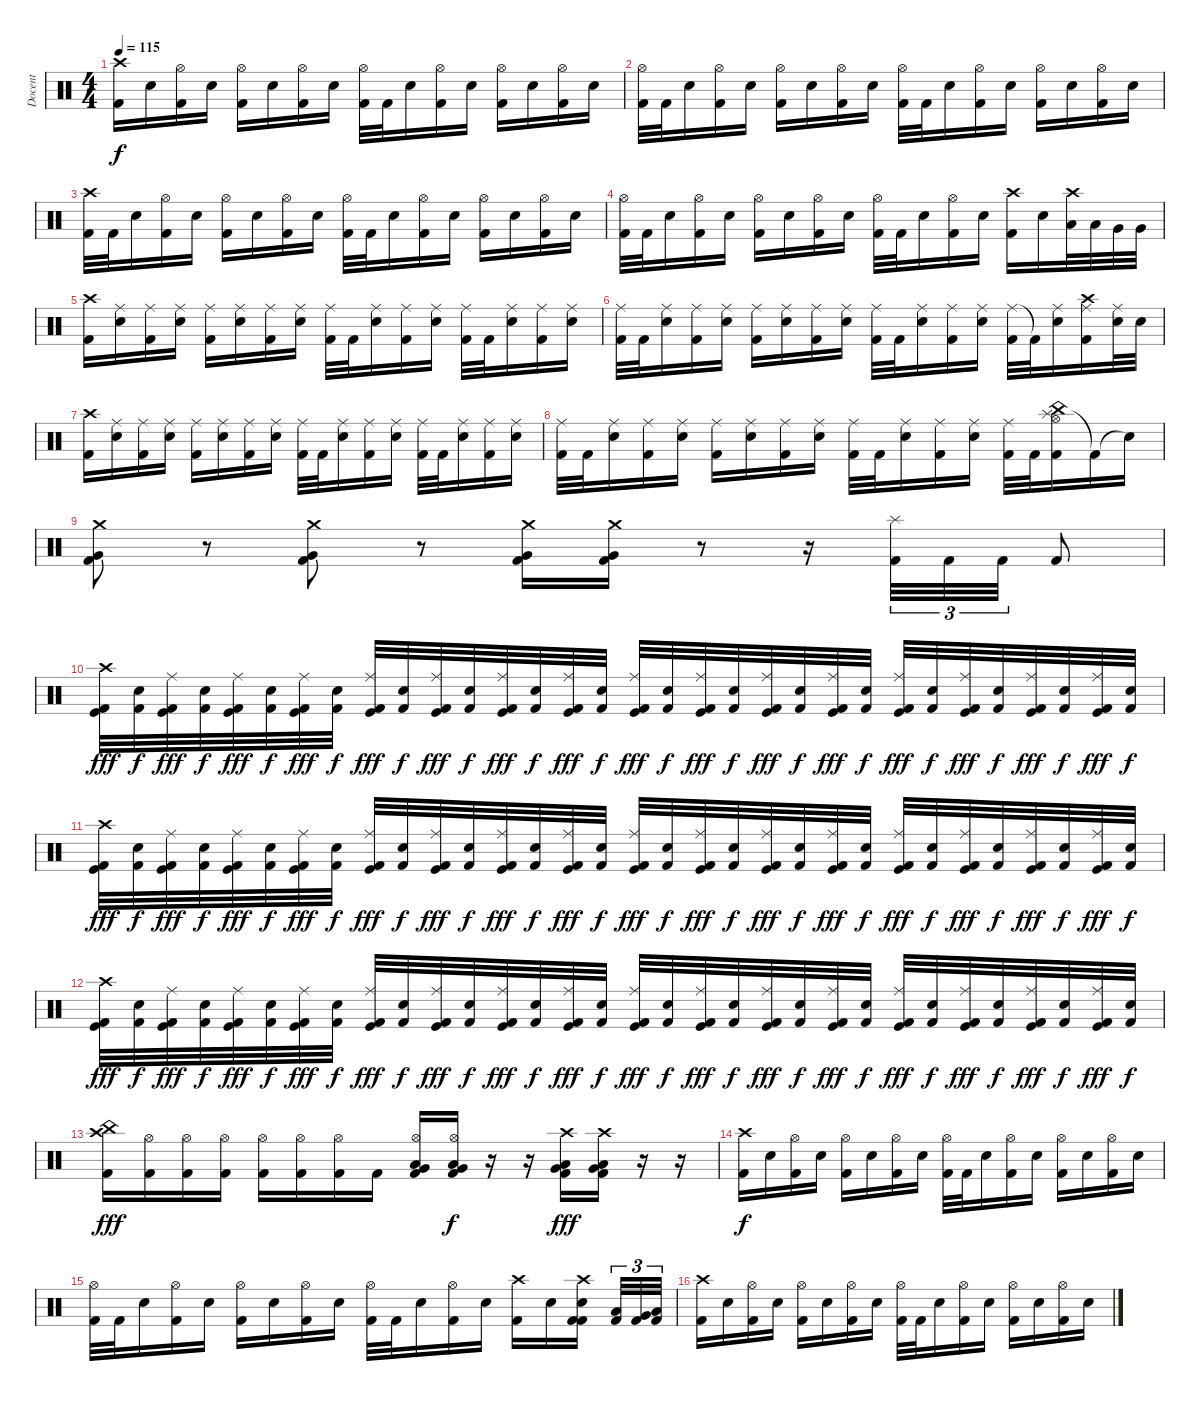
\track ("Docent" "Docent") {instrument percussion}
\staff {score}
\articulation defaults
\ts (4 4)
\tempo 115
\clef neutral
\ks c
("Crash high (hit)" "Kick (hit) 2").16{dy f} "Electric Snare (hit)".16 ("Hi-Hat (open)" "Kick (hit) 2").16 "Electric Snare (hit)".16 ("Hi-Hat (open)" "Kick (hit) 2").16 "Electric Snare (hit)".16 ("Hi-Hat (open)" "Kick (hit) 2").16 "Electric Snare (hit)".16 ("Hi-Hat (open)" "Kick (hit) 2").32 "Kick (hit) 2".32 "Electric Snare (hit)".16 ("Hi-Hat (open)" "Kick (hit) 2").16 "Electric Snare (hit)".16 ("Hi-Hat (open)" "Kick (hit) 2").16 "Electric Snare (hit)".16 ("Hi-Hat (open)" "Kick (hit) 2").16 "Electric Snare (hit)".16 |
("Hi-Hat (open)" "Kick (hit) 2").32 "Kick (hit) 2".32 "Electric Snare (hit)".16 ("Hi-Hat (open)" "Kick (hit) 2").16 "Electric Snare (hit)".16 ("Hi-Hat (open)" "Kick (hit) 2").16 "Electric Snare (hit)".16 ("Hi-Hat (open)" "Kick (hit) 2").16 "Electric Snare (hit)".16 ("Hi-Hat (open)" "Kick (hit) 2").32 "Kick (hit) 2".32 "Electric Snare (hit)".16 ("Hi-Hat (open)" "Kick (hit) 2").16 "Electric Snare (hit)".16 ("Hi-Hat (open)" "Kick (hit) 2").16 "Electric Snare (hit)".16 ("Hi-Hat (open)" "Kick (hit) 2").16 "Electric Snare (hit)".16 |
("Crash high (hit)" "Kick (hit) 2").32 "Kick (hit) 2".32 "Electric Snare (hit)".16 ("Hi-Hat (open)" "Kick (hit) 2").16 "Electric Snare (hit)".16 ("Hi-Hat (open)" "Kick (hit) 2").16 "Electric Snare (hit)".16 ("Hi-Hat (open)" "Kick (hit) 2").16 "Electric Snare (hit)".16 ("Hi-Hat (open)" "Kick (hit) 2").32 "Kick (hit) 2".32 "Electric Snare (hit)".16 ("Hi-Hat (open)" "Kick (hit) 2").16 "Electric Snare (hit)".16 ("Hi-Hat (open)" "Kick (hit) 2").16 "Electric Snare (hit)".16 ("Hi-Hat (open)" "Kick (hit) 2").16 "Electric Snare (hit)".16 |
("Hi-Hat (open)" "Kick (hit) 2").32 "Kick (hit) 2".32 "Electric Snare (hit)".16 ("Hi-Hat (open)" "Kick (hit) 2").16 "Electric Snare (hit)".16 ("Hi-Hat (open)" "Kick (hit) 2").16 "Electric Snare (hit)".16 ("Hi-Hat (open)" "Kick (hit) 2").16 "Electric Snare (hit)".16 ("Hi-Hat (open)" "Kick (hit) 2").32 "Kick (hit) 2".32 "Electric Snare (hit)".16 ("Hi-Hat (open)" "Kick (hit) 2").16 "Electric Snare (hit)".16 ("Crash high (hit)" "Kick (hit) 2").16 "Electric Snare (hit)".16 ("Crash high (hit)" "Low Tom (hit)").32 "Low Tom (hit)".32 "Very Low Tom (hit)".32 "Very Low Tom (hit)".32 |
("Crash high (hit)" "Kick (hit) 2").16 ("Ride (middle)" "Electric Snare (hit)").16 ("Ride (middle)" "Kick (hit) 2").16 ("Ride (middle)" "Electric Snare (hit)").16 ("Ride (middle)" "Kick (hit) 2").16 ("Ride (middle)" "Electric Snare (hit)").16 ("Ride (middle)" "Kick (hit) 2").16 ("Ride (middle)" "Electric Snare (hit)").16 ("Ride (middle)" "Kick (hit) 2").32 "Kick (hit) 2".32 ("Ride (middle)" "Electric Snare (hit)").16 ("Ride (middle)" "Kick (hit) 2").16 ("Ride (middle)" "Electric Snare (hit)").16 ("Ride (middle)" "Kick (hit) 2").32 "Kick (hit) 2".32 ("Ride (middle)" "Electric Snare (hit)").16 ("Ride (middle)" "Kick (hit) 2").16 ("Ride (middle)" "Electric Snare (hit)").16 |
("Ride (middle)" "Kick (hit) 2").32 "Kick (hit) 2".32 ("Ride (middle)" "Electric Snare (hit)").16 ("Ride (middle)" "Kick (hit) 2").16 ("Ride (middle)" "Electric Snare (hit)").16 ("Ride (middle)" "Kick (hit) 2").16 ("Ride (middle)" "Electric Snare (hit)").16 ("Ride (middle)" "Kick (hit) 2").16 ("Ride (middle)" "Electric Snare (hit)").16 ("Ride (middle)" "Kick (hit) 2").32 "Kick (hit) 2".32 ("Ride (middle)" "Electric Snare (hit)").16 ("Ride (middle)" "Kick (hit) 2").16 ("Ride (middle)" "Electric Snare (hit)").16 ("Ride (middle)" "Kick (hit) 2").32 "Kick (hit) 2"{t}.32 ("Ride (middle)" "Electric Snare (hit)").16 ("Ride (middle)" "Crash high (hit)" "Kick (hit) 2").16 ("Ride (middle)" "Electric Snare (hit)").32 "Electric Snare (hit)".32 |
("Crash high (hit)" "Kick (hit) 2").16 ("Ride (middle)" "Electric Snare (hit)").16 ("Ride (middle)" "Kick (hit) 2").16 ("Ride (middle)" "Electric Snare (hit)").16 ("Ride (middle)" "Kick (hit) 2").16 ("Ride (middle)" "Electric Snare (hit)").16 ("Ride (middle)" "Kick (hit) 2").16 ("Ride (middle)" "Electric Snare (hit)").16 ("Ride (middle)" "Kick (hit) 2").32 "Kick (hit) 2".32 ("Ride (middle)" "Electric Snare (hit)").16 ("Ride (middle)" "Kick (hit) 2").16 ("Ride (middle)" "Electric Snare (hit)").16 ("Ride (middle)" "Kick (hit) 2").32 "Kick (hit) 2".32 ("Ride (middle)" "Electric Snare (hit)").16 ("Ride (middle)" "Kick (hit) 2").16 ("Ride (middle)" "Electric Snare (hit)").16 |
("Ride (middle)" "Kick (hit) 2").32 "Kick (hit) 2".32 ("Ride (middle)" "Electric Snare (hit)").16 ("Ride (middle)" "Kick (hit) 2").16 ("Ride (middle)" "Electric Snare (hit)").16 ("Ride (middle)" "Kick (hit) 2").16 ("Ride (middle)" "Electric Snare (hit)").16 ("Ride (middle)" "Kick (hit) 2").16 ("Ride (middle)" "Electric Snare (hit)").16 ("Ride (middle)" "Kick (hit) 2").32 "Kick (hit) 2".32 ("Ride (middle)" "Electric Snare (hit)").16 ("Ride (middle)" "Kick (hit) 2").16 ("Ride (middle)" "Electric Snare (hit)").16 ("Ride (middle)" "Kick (hit) 2").32 "Kick (hit) 2".32 ("Splash (hit)" "Hi-Hat (open)" "China (hit)" "Kick (hit) 2").16 "Kick (hit) 2"{t}.16 "Snare (hit)"{t}.16 |
("Crash medium (hit)" "Very Low Tom (hit)" "Kick (hit) 2").8 r.8 ("Crash medium (hit)" "Very Low Tom (hit)" "Kick (hit) 2").8 r.8 ("Crash medium (hit)" "Kick (hit) 2" "Very Low Tom (hit)").16 ("Crash medium (hit)" "Kick (hit) 2" "Very Low Tom (hit)").16 r.8 r.16 ("Splash (hit)" "Kick (hit) 2").32{tu (3 2)} "Kick (hit) 2".32{tu (3 2)} "Kick (hit) 2".32{tu (3 2)} "Kick (hit) 2".8 |
("Crash high (hit)" "Kick (hit)" "Kick (hit) 2").32{dy fff} ("Electric Snare (hit)" "Kick (hit) 2").32{dy f} ("Ride (middle)" "Kick (hit)" "Kick (hit) 2").32{dy fff} ("Electric Snare (hit)" "Kick (hit) 2").32{dy f} ("Ride (middle)" "Kick (hit)" "Kick (hit) 2").32{dy fff} ("Electric Snare (hit)" "Kick (hit) 2").32{dy f} ("Ride (middle)" "Kick (hit)" "Kick (hit) 2").32{dy fff} ("Electric Snare (hit)" "Kick (hit) 2").32{dy f} ("Ride (middle)" "Kick (hit)" "Kick (hit) 2").32{dy fff} ("Electric Snare (hit)" "Kick (hit) 2").32{dy f} ("Ride (middle)" "Kick (hit)" "Kick (hit) 2").32{dy fff} ("Electric Snare (hit)" "Kick (hit) 2").32{dy f} ("Ride (middle)" "Kick (hit)" "Kick (hit) 2").32{dy fff} ("Electric Snare (hit)" "Kick (hit) 2").32{dy f} ("Ride (middle)" "Kick (hit)" "Kick (hit) 2").32{dy fff} ("Electric Snare (hit)" "Kick (hit) 2").32{dy f} ("Ride (middle)" "Kick (hit)" "Kick (hit) 2").32{dy fff} ("Electric Snare (hit)" "Kick (hit) 2").32{dy f} ("Ride (middle)" "Kick (hit)" "Kick (hit) 2").32{dy fff} ("Electric Snare (hit)" "Kick (hit) 2").32{dy f} ("Ride (middle)" "Kick (hit)" "Kick (hit) 2").32{dy fff} ("Electric Snare (hit)" "Kick (hit) 2").32{dy f} ("Ride (middle)" "Kick (hit)" "Kick (hit) 2").32{dy fff} ("Electric Snare (hit)" "Kick (hit) 2").32{dy f} ("Ride (middle)" "Kick (hit)" "Kick (hit) 2").32{dy fff} ("Electric Snare (hit)" "Kick (hit) 2").32{dy f} ("Ride (middle)" "Kick (hit)" "Kick (hit) 2").32{dy fff} ("Electric Snare (hit)" "Kick (hit) 2").32{dy f} ("Ride (middle)" "Kick (hit)" "Kick (hit) 2").32{dy fff} ("Electric Snare (hit)" "Kick (hit) 2").32{dy f} ("Ride (middle)" "Kick (hit)" "Kick (hit) 2").32{dy fff} ("Electric Snare (hit)" "Kick (hit) 2").32{dy f} |
("Crash high (hit)" "Kick (hit)" "Kick (hit) 2").32{dy fff} ("Electric Snare (hit)" "Kick (hit) 2").32{dy f} ("Ride (middle)" "Kick (hit)" "Kick (hit) 2").32{dy fff} ("Electric Snare (hit)" "Kick (hit) 2").32{dy f} ("Ride (middle)" "Kick (hit)" "Kick (hit) 2").32{dy fff} ("Electric Snare (hit)" "Kick (hit) 2").32{dy f} ("Ride (middle)" "Kick (hit)" "Kick (hit) 2").32{dy fff} ("Electric Snare (hit)" "Kick (hit) 2").32{dy f} ("Ride (middle)" "Kick (hit)" "Kick (hit) 2").32{dy fff} ("Electric Snare (hit)" "Kick (hit) 2").32{dy f} ("Ride (middle)" "Kick (hit)" "Kick (hit) 2").32{dy fff} ("Electric Snare (hit)" "Kick (hit) 2").32{dy f} ("Ride (middle)" "Kick (hit)" "Kick (hit) 2").32{dy fff} ("Electric Snare (hit)" "Kick (hit) 2").32{dy f} ("Ride (middle)" "Kick (hit)" "Kick (hit) 2").32{dy fff} ("Electric Snare (hit)" "Kick (hit) 2").32{dy f} ("Ride (middle)" "Kick (hit)" "Kick (hit) 2").32{dy fff} ("Electric Snare (hit)" "Kick (hit) 2").32{dy f} ("Ride (middle)" "Kick (hit)" "Kick (hit) 2").32{dy fff} ("Electric Snare (hit)" "Kick (hit) 2").32{dy f} ("Ride (middle)" "Kick (hit)" "Kick (hit) 2").32{dy fff} ("Electric Snare (hit)" "Kick (hit) 2").32{dy f} ("Ride (middle)" "Kick (hit)" "Kick (hit) 2").32{dy fff} ("Electric Snare (hit)" "Kick (hit) 2").32{dy f} ("Ride (middle)" "Kick (hit)" "Kick (hit) 2").32{dy fff} ("Electric Snare (hit)" "Kick (hit) 2").32{dy f} ("Ride (middle)" "Kick (hit)" "Kick (hit) 2").32{dy fff} ("Electric Snare (hit)" "Kick (hit) 2").32{dy f} ("Ride (middle)" "Kick (hit)" "Kick (hit) 2").32{dy fff} ("Electric Snare (hit)" "Kick (hit) 2").32{dy f} ("Ride (middle)" "Kick (hit)" "Kick (hit) 2").32{dy fff} ("Electric Snare (hit)" "Kick (hit) 2").32{dy f} |
("Crash high (hit)" "Kick (hit)" "Kick (hit) 2").32{dy fff} ("Electric Snare (hit)" "Kick (hit) 2").32{dy f} ("Ride (middle)" "Kick (hit)" "Kick (hit) 2").32{dy fff} ("Electric Snare (hit)" "Kick (hit) 2").32{dy f} ("Ride (middle)" "Kick (hit)" "Kick (hit) 2").32{dy fff} ("Electric Snare (hit)" "Kick (hit) 2").32{dy f} ("Ride (middle)" "Kick (hit)" "Kick (hit) 2").32{dy fff} ("Electric Snare (hit)" "Kick (hit) 2").32{dy f} ("Ride (middle)" "Kick (hit)" "Kick (hit) 2").32{dy fff} ("Electric Snare (hit)" "Kick (hit) 2").32{dy f} ("Ride (middle)" "Kick (hit)" "Kick (hit) 2").32{dy fff} ("Electric Snare (hit)" "Kick (hit) 2").32{dy f} ("Ride (middle)" "Kick (hit)" "Kick (hit) 2").32{dy fff} ("Electric Snare (hit)" "Kick (hit) 2").32{dy f} ("Ride (middle)" "Kick (hit)" "Kick (hit) 2").32{dy fff} ("Electric Snare (hit)" "Kick (hit) 2").32{dy f} ("Ride (middle)" "Kick (hit)" "Kick (hit) 2").32{dy fff} ("Electric Snare (hit)" "Kick (hit) 2").32{dy f} ("Ride (middle)" "Kick (hit)" "Kick (hit) 2").32{dy fff} ("Electric Snare (hit)" "Kick (hit) 2").32{dy f} ("Ride (middle)" "Kick (hit)" "Kick (hit) 2").32{dy fff} ("Electric Snare (hit)" "Kick (hit) 2").32{dy f} ("Ride (middle)" "Kick (hit)" "Kick (hit) 2").32{dy fff} ("Electric Snare (hit)" "Kick (hit) 2").32{dy f} ("Ride (middle)" "Kick (hit)" "Kick (hit) 2").32{dy fff} ("Electric Snare (hit)" "Kick (hit) 2").32{dy f} ("Ride (middle)" "Kick (hit)" "Kick (hit) 2").32{dy fff} ("Electric Snare (hit)" "Kick (hit) 2").32{dy f} ("Ride (middle)" "Kick (hit)" "Kick (hit) 2").32{dy fff} ("Electric Snare (hit)" "Kick (hit) 2").32{dy f} ("Ride (middle)" "Kick (hit)" "Kick (hit) 2").32{dy fff} ("Electric Snare (hit)" "Kick (hit) 2").32{dy f} |
("Crash high (hit)" "China (hit)" "Kick (hit) 2").16{dy fff} ("Hi-Hat (open)" "Kick (hit) 2").16 ("Hi-Hat (open)" "Kick (hit) 2").16 ("Hi-Hat (open)" "Kick (hit) 2").16 ("Hi-Hat (open)" "Kick (hit) 2").16 ("Hi-Hat (open)" "Kick (hit) 2").16 ("Hi-Hat (open)" "Kick (hit) 2").16 "Kick (hit) 2".16 ("Hi-Hat (open)" "Very Low Tom (hit)" "Low Tom (hit)" "Kick (hit) 2").16 ("Hi-Hat (open)" "Very Low Tom (hit)" "Low Tom (hit)" "Kick (hit) 2").16{dy f} r.16 r.16 ("Crash high (hit)" "Very Low Tom (hit)" "Low Tom (hit)" "Kick (hit) 2").16{dy fff} ("Crash high (hit)" "Very Low Tom (hit)" "Low Tom (hit)" "Kick (hit) 2").16 r.16 r.16 |
("Crash high (hit)" "Kick (hit) 2").16{dy f} "Electric Snare (hit)".16 ("Hi-Hat (open)" "Kick (hit) 2").16 "Electric Snare (hit)".16 ("Hi-Hat (open)" "Kick (hit) 2").16 "Electric Snare (hit)".16 ("Hi-Hat (open)" "Kick (hit) 2").16 "Electric Snare (hit)".16 ("Hi-Hat (open)" "Kick (hit) 2").32 "Kick (hit) 2".32 "Electric Snare (hit)".16 ("Hi-Hat (open)" "Kick (hit) 2").16 "Electric Snare (hit)".16 ("Hi-Hat (open)" "Kick (hit) 2").16 "Electric Snare (hit)".16 ("Hi-Hat (open)" "Kick (hit) 2").16 "Electric Snare (hit)".16 |
("Hi-Hat (open)" "Kick (hit) 2").32 "Kick (hit) 2".32 "Electric Snare (hit)".16 ("Hi-Hat (open)" "Kick (hit) 2").16 "Electric Snare (hit)".16 ("Hi-Hat (open)" "Kick (hit) 2").16 "Electric Snare (hit)".16 ("Hi-Hat (open)" "Kick (hit) 2").16 "Electric Snare (hit)".16 ("Hi-Hat (open)" "Kick (hit) 2").32 "Kick (hit) 2".32 "Electric Snare (hit)".16 ("Hi-Hat (open)" "Kick (hit) 2").16 "Electric Snare (hit)".16 ("Crash high (hit)" "Kick (hit) 2").16 "Electric Snare (hit)".16 ("Crash high (hit)" "Electric Snare (hit)" "Kick (hit) 2" "Kick (hit) 2").16 ("Kick (hit) 2" "Low Tom (hit)").32{tu (3 2)} ("Kick (hit) 2" "Very Low Tom (hit)").32{tu (3 2)} ("Kick (hit) 2" "Low Floor Tom (hit)").32{tu (3 2)} |
("Crash high (hit)" "Kick (hit) 2").16 "Electric Snare (hit)".16 ("Hi-Hat (open)" "Kick (hit) 2").16 "Electric Snare (hit)".16 ("Hi-Hat (open)" "Kick (hit) 2").16 "Electric Snare (hit)".16 ("Hi-Hat (open)" "Kick (hit) 2").16 "Electric Snare (hit)".16 ("Hi-Hat (open)" "Kick (hit) 2").32 "Kick (hit) 2".32 "Electric Snare (hit)".16 ("Hi-Hat (open)" "Kick (hit) 2").16 "Electric Snare (hit)".16 ("Hi-Hat (open)" "Kick (hit) 2").16 "Electric Snare (hit)".16 ("Hi-Hat (open)" "Kick (hit) 2").16 "Electric Snare (hit)".16
